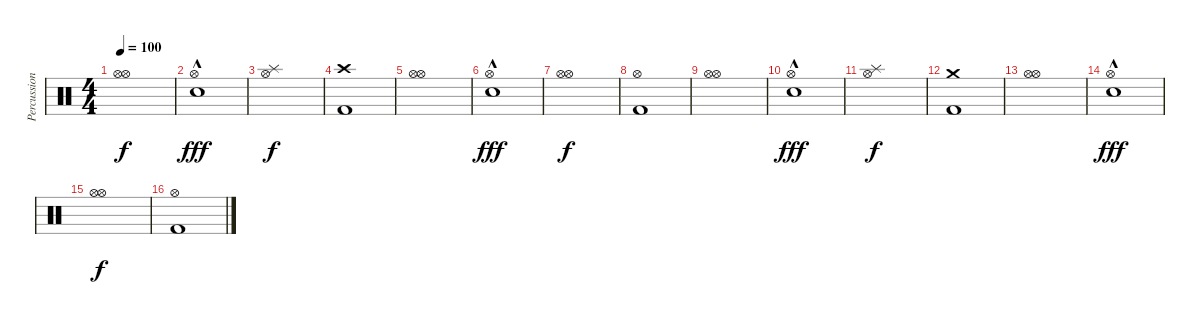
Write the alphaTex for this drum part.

\track ("Percussion" "Percussion") {instrument percussion}
\staff {score}
\articulation defaults
\ts (4 4)
\tempo 100
\clef neutral
\ks c
("Hi-Hat (open)" "Hi-Hat (open)").1{dy f} |
("Hi-Hat (open)" "Snare (hit) 2"{hac}).1{dy fff} |
("Hi-Hat (open)" "Splash (hit)").1{dy f} |
("Crash high (hit)" "Kick (hit) 2").1 |
("Hi-Hat (open)" "Hi-Hat (open)").1 |
("Hi-Hat (open)" "Snare (hit) 2"{hac}).1{dy fff} |
("Hi-Hat (open)" "Hi-Hat (open)").1{dy f} |
("Hi-Hat (open)" "Kick (hit) 2").1 |
("Hi-Hat (open)" "Hi-Hat (open)").1 |
("Hi-Hat (open)" "Snare (hit) 2"{hac}).1{dy fff} |
("Hi-Hat (open)" "Splash (hit)").1{dy f} |
("Crash medium (hit)" "Kick (hit) 2").1 |
("Hi-Hat (open)" "Hi-Hat (open)").1 |
("Hi-Hat (open)" "Snare (hit) 2"{hac}).1{dy fff} |
("Hi-Hat (open)" "Hi-Hat (open)").1{dy f} |
("Hi-Hat (open)" "Kick (hit) 2").1
